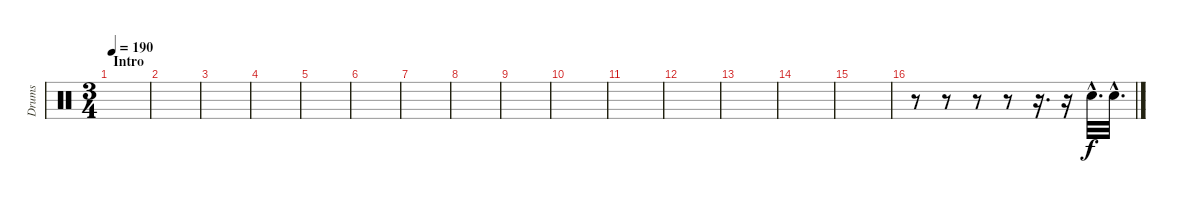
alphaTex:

\track ("Drums" "Drums") {instrument percussion}
\staff {score}
\articulation defaults
\ts (3 4)
\section ("" "Intro")
\tempo 190
\tempo 177
\tempo 190
\clef neutral
\ks c
|
|
|
|
|
|
|
|
|
|
|
|
|
|
|
r.8 r.8 r.8 r.8 r.16{d} r.16 "Snare (hit) 2"{hac}.32{d} "Snare (hit) 2"{hac}.32{d}
